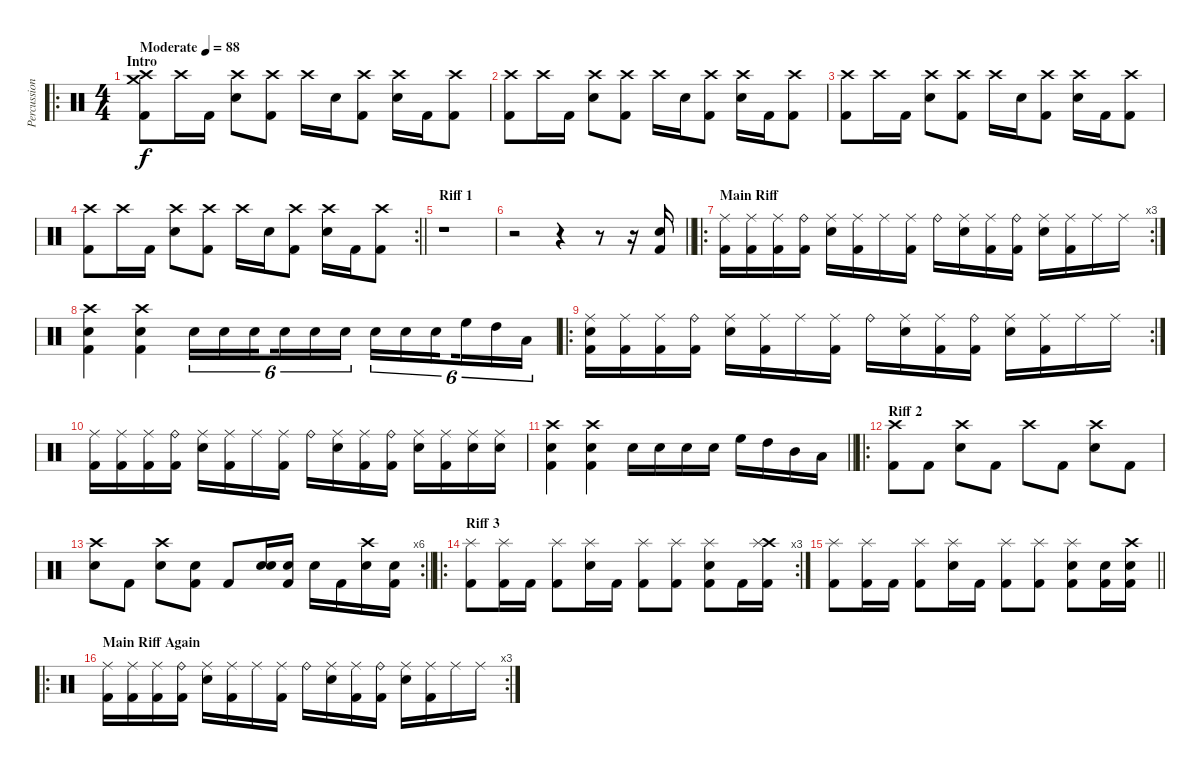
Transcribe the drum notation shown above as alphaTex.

\track ("Percussion" "Percussion") {instrument percussion}
\staff {score}
\articulation defaults
\ro
\ts (4 4)
\section ("" "Intro")
\tempo (88 "Moderate")
\clef neutral
\ks c
("Crash high (hit)" "Crash medium (hit)" "Kick (hit) 2").8{dy f} "Crash high (hit)".16 "Kick (hit) 2".16 ("Crash high (hit)" "Snare (hit) 2").8 ("Crash high (hit)" "Kick (hit) 2").8 "Crash high (hit)".16 "Snare (hit) 2".16 ("Crash high (hit)" "Kick (hit) 2").8 ("Crash high (hit)" "Snare (hit) 2").16 "Kick (hit) 2".16 ("Crash high (hit)" "Kick (hit) 2").8 |
("Crash high (hit)" "Kick (hit) 2").8 "Crash high (hit)".16 "Kick (hit) 2".16 ("Crash high (hit)" "Snare (hit) 2").8 ("Crash high (hit)" "Kick (hit) 2").8 "Crash high (hit)".16 "Snare (hit) 2".16 ("Crash high (hit)" "Kick (hit) 2").8 ("Crash high (hit)" "Snare (hit) 2").16 "Kick (hit) 2".16 ("Crash high (hit)" "Kick (hit) 2").8 |
("Crash high (hit)" "Kick (hit) 2").8 "Crash high (hit)".16 "Kick (hit) 2".16 ("Crash high (hit)" "Snare (hit) 2").8 ("Crash high (hit)" "Kick (hit) 2").8 "Crash high (hit)".16 "Snare (hit) 2".16 ("Crash high (hit)" "Kick (hit) 2").8 ("Crash high (hit)" "Snare (hit) 2").16 "Kick (hit) 2".16 ("Crash high (hit)" "Kick (hit) 2").8 |
\rc 2
\barLineRight lightlight
("Crash high (hit)" "Kick (hit) 2").8 "Crash high (hit)".16 "Kick (hit) 2".16 ("Crash high (hit)" "Snare (hit) 2").8 ("Crash high (hit)" "Kick (hit) 2").8 "Crash high (hit)".16 "Snare (hit) 2".16 ("Crash high (hit)" "Kick (hit) 2").8 ("Crash high (hit)" "Snare (hit) 2").16 "Kick (hit) 2".16 ("Crash high (hit)" "Kick (hit) 2").8 |
\section ("" "Riff 1")
r.1 |
\barLineRight lightlight
r.2 r.4 r.8 r.16 ("Snare (hit) 2" "Kick (hit) 2").16 |
\ro
\rc 3
\section ("" "Main Riff ")
("Ride (middle)" "Kick (hit) 2").16 ("Ride (middle)" "Kick (hit) 2").16 ("Ride (middle)" "Kick (hit) 2").16 ("Ride (bell)" "Kick (hit) 2").16 ("Ride (middle)" "Snare (hit) 2").16 ("Ride (middle)" "Kick (hit) 2").16 "Ride (middle)".16 ("Ride (middle)" "Kick (hit) 2").16 "Ride (bell)".16 ("Ride (middle)" "Snare (hit) 2").16 ("Ride (middle)" "Kick (hit) 2").16 ("Ride (bell)" "Kick (hit) 2").16 ("Ride (middle)" "Snare (hit) 2").16 ("Ride (middle)" "Kick (hit) 2").16 "Ride (middle)".16 "Ride (middle)".16 |
("Crash high (hit)" "Snare (hit) 2" "Kick (hit) 2").4 ("Crash high (hit)" "Snare (hit) 2" "Kick (hit) 2").4 "Snare (hit) 2".16{tu (6 4)} "Snare (hit) 2".16{tu (6 4)} "Snare (hit) 2".16{tu (6 4) beam splitsecondary} "Snare (hit) 2".16{tu (6 4)} "Snare (hit) 2".16{tu (6 4)} "Snare (hit) 2".16{tu (6 4)} "Snare (hit) 2".16{tu (6 4)} "Snare (hit) 2".16{tu (6 4)} "Snare (hit) 2".16{tu (6 4) beam splitsecondary} "High Floor Tom (hit)".16{tu (6 4)} "High Tom (hit)".16{tu (6 4)} "Low Tom (hit)".16{tu (6 4)} |
\ro
\rc 2
("Ride (middle)" "Snare (hit) 2" "Kick (hit) 2").16 ("Ride (middle)" "Kick (hit) 2").16 ("Ride (middle)" "Kick (hit) 2").16 ("Ride (bell)" "Kick (hit) 2").16 ("Ride (middle)" "Snare (hit) 2").16 ("Ride (middle)" "Kick (hit) 2").16 "Ride (middle)".16 ("Ride (middle)" "Kick (hit) 2").16 "Ride (bell)".16 ("Ride (middle)" "Snare (hit) 2").16 ("Ride (middle)" "Kick (hit) 2").16 ("Ride (bell)" "Kick (hit) 2").16 ("Ride (middle)" "Snare (hit) 2").16 ("Ride (middle)" "Kick (hit) 2").16 "Ride (middle)".16 "Ride (middle)".16 |
("Ride (middle)" "Kick (hit) 2").16 ("Ride (middle)" "Kick (hit) 2").16 ("Ride (middle)" "Kick (hit) 2").16 ("Ride (bell)" "Kick (hit) 2").16 ("Ride (middle)" "Snare (hit) 2").16 ("Ride (middle)" "Kick (hit) 2").16 "Ride (middle)".16 ("Ride (middle)" "Kick (hit) 2").16 "Ride (bell)".16 ("Ride (middle)" "Snare (hit) 2").16 ("Ride (middle)" "Kick (hit) 2").16 ("Ride (bell)" "Kick (hit) 2").16 ("Ride (middle)" "Snare (hit) 2").16 ("Ride (middle)" "Kick (hit) 2").16 ("Ride (middle)" "Snare (hit) 2").16 ("Ride (middle)" "Snare (hit) 2").16 |
\barLineRight lightlight
("Crash high (hit)" "Snare (hit) 2" "Kick (hit) 2").4 ("Crash high (hit)" "Snare (hit) 2" "Kick (hit) 2").4 "Snare (hit) 2".16 "Snare (hit) 2".16 "Snare (hit) 2".16 "Snare (hit) 2".16 "High Floor Tom (hit)".16 "High Tom (hit)".16 "Mid Tom (hit)".16 "Low Tom (hit)".16 |
\ro
\section ("" "Riff 2")
("Crash high (hit)" "Kick (hit) 2").8 "Kick (hit) 2".8 ("Crash high (hit)" "Snare (hit) 2").8 "Kick (hit) 2".8 "Crash high (hit)".8 "Kick (hit) 2".8 ("Crash high (hit)" "Snare (hit) 2").8 "Kick (hit) 2".8 |
\rc 6
\barLineRight lightlight
("Crash high (hit)" "Snare (hit) 2").8 "Kick (hit) 2".8 ("Crash high (hit)" "Snare (hit) 2").8 ("Snare (hit) 2" "Kick (hit) 2").8 "Kick (hit) 2".8 ("Snare (hit) 2" "Snare (hit) 2").16 ("Snare (hit) 2" "Kick (hit) 2").16 "Snare (hit) 2".16 "Kick (hit) 2".16 ("Crash high (hit)" "Snare (hit) 2").16 ("Snare (hit) 2" "Kick (hit) 2").16 |
\ro
\rc 3
\section ("" "Riff 3")
("Splash (hit)" "Kick (hit) 2").8 ("Splash (hit)" "Kick (hit) 2").16 "Kick (hit) 2".16 ("Splash (hit)" "Kick (hit) 2").8 ("Splash (hit)" "Snare (hit) 2").16 "Kick (hit) 2".16 ("Splash (hit)" "Kick (hit) 2").8 ("Splash (hit)" "Kick (hit) 2").8 ("Splash (hit)" "Snare (hit) 2" "Kick (hit) 2").8 "Kick (hit) 2".16 ("Crash high (hit)" "Splash (hit)" "Kick (hit) 2").16 |
\barLineRight lightlight
("Splash (hit)" "Kick (hit) 2").8 ("Splash (hit)" "Kick (hit) 2").16 "Kick (hit) 2".16 ("Splash (hit)" "Kick (hit) 2").8 ("Splash (hit)" "Snare (hit) 2").16 "Kick (hit) 2".16 ("Splash (hit)" "Kick (hit) 2").8 ("Splash (hit)" "Kick (hit) 2").8 ("Splash (hit)" "Snare (hit) 2" "Kick (hit) 2").8 ("Snare (hit) 2" "Kick (hit) 2").16 ("Crash high (hit)" "Snare (hit) 2" "Kick (hit) 2").16 |
\ro
\rc 3
\section ("" "Main Riff Again")
("Ride (middle)" "Kick (hit) 2").16 ("Ride (middle)" "Kick (hit) 2").16 ("Ride (middle)" "Kick (hit) 2").16 ("Ride (bell)" "Kick (hit) 2").16 ("Ride (middle)" "Snare (hit) 2").16 ("Ride (middle)" "Kick (hit) 2").16 "Ride (middle)".16 ("Ride (middle)" "Kick (hit) 2").16 "Ride (bell)".16 ("Ride (middle)" "Snare (hit) 2").16 ("Ride (middle)" "Kick (hit) 2").16 ("Ride (bell)" "Kick (hit) 2").16 ("Ride (middle)" "Snare (hit) 2").16 ("Ride (middle)" "Kick (hit) 2").16 "Ride (middle)".16 "Ride (middle)".16
